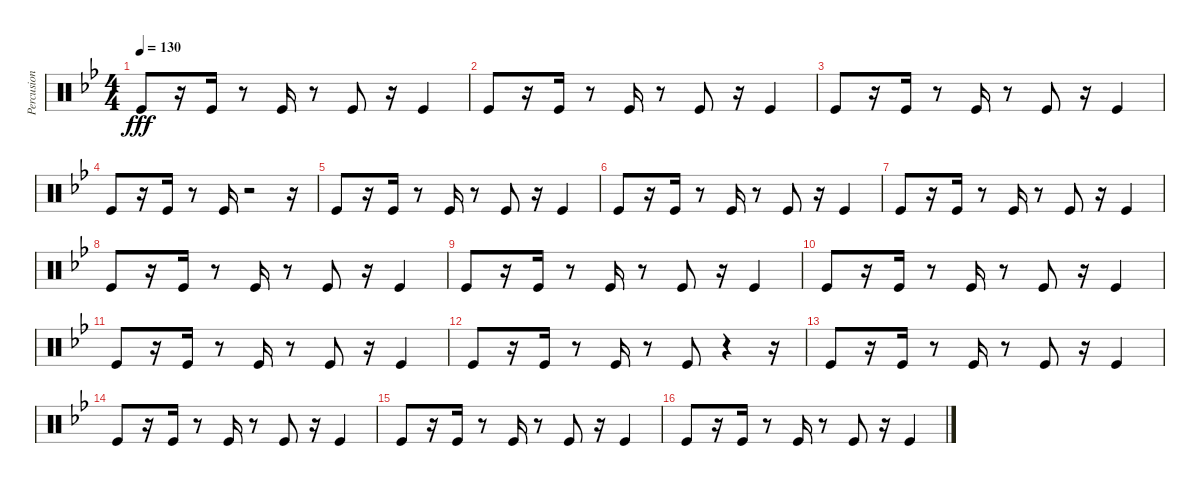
\track ("Percusion II" "Percusion ") {instrument percussion}
\staff {score}
\articulation defaults
\ts (4 4)
\tempo 130
\clef neutral
\ks gminor "Kick (hit)".8{dy fff}
r.16 "Kick (hit)".16 r.8 "Kick (hit)".16 r.8 "Kick (hit)".8 r.16 "Kick (hit)".4 |
"Kick (hit)".8 r.16 "Kick (hit)".16 r.8 "Kick (hit)".16 r.8 "Kick (hit)".8 r.16 "Kick (hit)".4 |
"Kick (hit)".8 r.16 "Kick (hit)".16 r.8 "Kick (hit)".16 r.8 "Kick (hit)".8 r.16 "Kick (hit)".4 |
"Kick (hit)".8 r.16 "Kick (hit)".16 r.8 "Kick (hit)".16 r.2 r.16 |
"Kick (hit)".8 r.16 "Kick (hit)".16 r.8 "Kick (hit)".16 r.8 "Kick (hit)".8 r.16 "Kick (hit)".4 |
"Kick (hit)".8 r.16 "Kick (hit)".16 r.8 "Kick (hit)".16 r.8 "Kick (hit)".8 r.16 "Kick (hit)".4 |
"Kick (hit)".8 r.16 "Kick (hit)".16 r.8 "Kick (hit)".16 r.8 "Kick (hit)".8 r.16 "Kick (hit)".4 |
"Kick (hit)".8 r.16 "Kick (hit)".16 r.8 "Kick (hit)".16 r.8 "Kick (hit)".8 r.16 "Kick (hit)".4 |
"Kick (hit)".8 r.16 "Kick (hit)".16 r.8 "Kick (hit)".16 r.8 "Kick (hit)".8 r.16 "Kick (hit)".4 |
"Kick (hit)".8 r.16 "Kick (hit)".16 r.8 "Kick (hit)".16 r.8 "Kick (hit)".8 r.16 "Kick (hit)".4 |
"Kick (hit)".8 r.16 "Kick (hit)".16 r.8 "Kick (hit)".16 r.8 "Kick (hit)".8 r.16 "Kick (hit)".4 |
"Kick (hit)".8 r.16 "Kick (hit)".16 r.8 "Kick (hit)".16 r.8 "Kick (hit)".8 r.4 r.16 |
"Kick (hit)".8 r.16 "Kick (hit)".16 r.8 "Kick (hit)".16 r.8 "Kick (hit)".8 r.16 "Kick (hit)".4 |
"Kick (hit)".8 r.16 "Kick (hit)".16 r.8 "Kick (hit)".16 r.8 "Kick (hit)".8 r.16 "Kick (hit)".4 |
"Kick (hit)".8 r.16 "Kick (hit)".16 r.8 "Kick (hit)".16 r.8 "Kick (hit)".8 r.16 "Kick (hit)".4 |
"Kick (hit)".8 r.16 "Kick (hit)".16 r.8 "Kick (hit)".16 r.8 "Kick (hit)".8 r.16 "Kick (hit)".4
